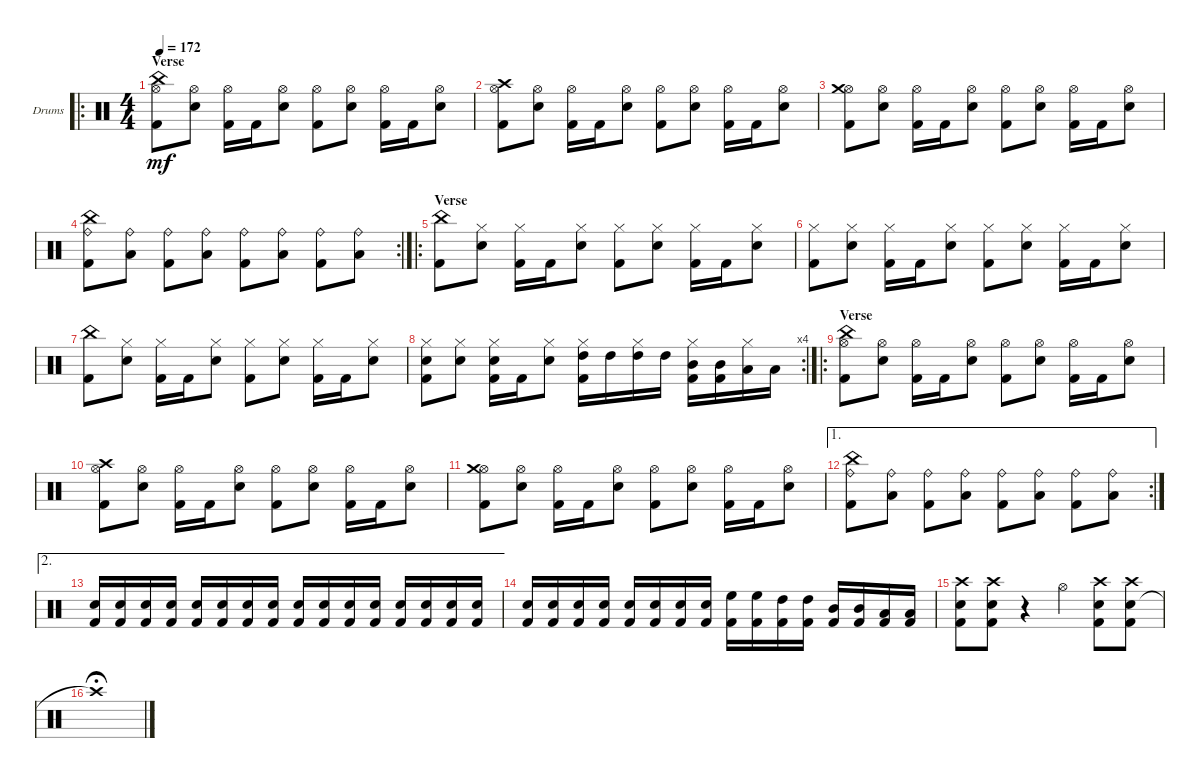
\bracketExtendMode groupsimilarinstruments
\firstSystemTrackNameOrientation horizontal
\otherSystemsTrackNameOrientation horizontal
\track ("Drumkit" "Drums") {instrument percussion}
\staff {score}
\articulation defaults
\ro
\ts (4 4)
\section ("" "Verse")
\tempo 172
\clef neutral
\ks c
("Kick (hit) 2" "Hi-Hat (open)" "China (hit)").8{dy mf} ("Snare (hit) 2" "Hi-Hat (open)").8 ("Kick (hit) 2" "Hi-Hat (open)").16 "Kick (hit) 2".16 ("Snare (hit) 2" "Hi-Hat (open)").8 ("Kick (hit) 2" "Hi-Hat (open)").8 ("Snare (hit) 2" "Hi-Hat (open)").8 ("Kick (hit) 2" "Hi-Hat (open)").16 "Kick (hit) 2".16 ("Snare (hit) 2" "Hi-Hat (open)").8 |
("Kick (hit) 2" "Hi-Hat (open)" "Crash high (hit)").8 ("Snare (hit) 2" "Hi-Hat (open)").8 ("Kick (hit) 2" "Hi-Hat (open)").16 "Kick (hit) 2".16 ("Snare (hit) 2" "Hi-Hat (open)").8 ("Kick (hit) 2" "Hi-Hat (open)").8 ("Snare (hit) 2" "Hi-Hat (open)").8 ("Kick (hit) 2" "Hi-Hat (open)").16 "Kick (hit) 2".16 ("Snare (hit) 2" "Hi-Hat (open)").8 |
("Kick (hit) 2" "Hi-Hat (open)" "Crash medium (hit)").8 ("Snare (hit) 2" "Hi-Hat (open)").8 ("Kick (hit) 2" "Hi-Hat (open)").16 "Kick (hit) 2".16 ("Snare (hit) 2" "Hi-Hat (open)").8 ("Kick (hit) 2" "Hi-Hat (open)").8 ("Snare (hit) 2" "Hi-Hat (open)").8 ("Kick (hit) 2" "Hi-Hat (open)").16 "Kick (hit) 2".16 ("Snare (hit) 2" "Hi-Hat (open)").8 |
\rc 2
("Kick (hit) 2" "China (hit)" "Ride (bell)").8 ("Ride (bell)" "Low Tom (hit)").8 ("Kick (hit) 2" "Ride (bell)").8 ("Ride (bell)" "Low Tom (hit)").8 ("Kick (hit) 2" "Ride (bell)").8 ("Ride (bell)" "Low Tom (hit)").8 ("Kick (hit) 2" "Ride (bell)").8 ("Ride (bell)" "Low Tom (hit)").8 |
\ro
\section ("" "Verse")
("Kick (hit) 2" "China (hit)").8 ("Snare (hit) 2" "Hi-Hat (closed)").8 ("Kick (hit) 2" "Hi-Hat (closed)").16 "Kick (hit) 2".16 ("Snare (hit) 2" "Hi-Hat (closed)").8 ("Kick (hit) 2" "Hi-Hat (closed)").8 ("Snare (hit) 2" "Hi-Hat (closed)").8 ("Kick (hit) 2" "Hi-Hat (closed)").16 "Kick (hit) 2".16 ("Snare (hit) 2" "Hi-Hat (closed)").8 |
("Kick (hit) 2" "Hi-Hat (closed)").8 ("Snare (hit) 2" "Hi-Hat (closed)").8 ("Kick (hit) 2" "Hi-Hat (closed)").16 "Kick (hit) 2".16 ("Snare (hit) 2" "Hi-Hat (closed)").8 ("Kick (hit) 2" "Hi-Hat (closed)").8 ("Snare (hit) 2" "Hi-Hat (closed)").8 ("Kick (hit) 2" "Hi-Hat (closed)").16 "Kick (hit) 2".16 ("Snare (hit) 2" "Hi-Hat (closed)").8 |
("Kick (hit) 2" "China (hit)").8 ("Snare (hit) 2" "Hi-Hat (closed)").8 ("Kick (hit) 2" "Hi-Hat (closed)").16 "Kick (hit) 2".16 ("Snare (hit) 2" "Hi-Hat (closed)").8 ("Kick (hit) 2" "Hi-Hat (closed)").8 ("Snare (hit) 2" "Hi-Hat (closed)").8 ("Kick (hit) 2" "Hi-Hat (closed)").16 "Kick (hit) 2".16 ("Snare (hit) 2" "Hi-Hat (closed)").8 |
\rc 4
("Kick (hit) 2" "Hi-Hat (closed)" "Snare (hit) 2").8 ("Snare (hit) 2" "Hi-Hat (closed)").8 ("Kick (hit) 2" "Hi-Hat (closed)" "Snare (hit) 2").16 "Kick (hit) 2".16 ("Snare (hit) 2" "Hi-Hat (closed)").8 ("Kick (hit) 2" "Hi-Hat (closed)" "High Tom (hit)").16 "High Tom (hit)".16 ("Hi-Hat (closed)" "High Tom (hit)").16 "High Tom (hit)".16 ("Kick (hit) 2" "Hi-Hat (closed)" "Mid Tom (hit)").16 ("Kick (hit) 2" "Mid Tom (hit)").16 ("Hi-Hat (closed)" "Low Tom (hit)").16 "Low Tom (hit)".16 |
\ro
\section ("" "Verse")
("Kick (hit) 2" "Hi-Hat (open)" "China (hit)").8 ("Snare (hit) 2" "Hi-Hat (open)").8 ("Kick (hit) 2" "Hi-Hat (open)").16 "Kick (hit) 2".16 ("Snare (hit) 2" "Hi-Hat (open)").8 ("Kick (hit) 2" "Hi-Hat (open)").8 ("Snare (hit) 2" "Hi-Hat (open)").8 ("Kick (hit) 2" "Hi-Hat (open)").16 "Kick (hit) 2".16 ("Snare (hit) 2" "Hi-Hat (open)").8 |
("Kick (hit) 2" "Hi-Hat (open)" "Crash high (hit)").8 ("Snare (hit) 2" "Hi-Hat (open)").8 ("Kick (hit) 2" "Hi-Hat (open)").16 "Kick (hit) 2".16 ("Snare (hit) 2" "Hi-Hat (open)").8 ("Kick (hit) 2" "Hi-Hat (open)").8 ("Snare (hit) 2" "Hi-Hat (open)").8 ("Kick (hit) 2" "Hi-Hat (open)").16 "Kick (hit) 2".16 ("Snare (hit) 2" "Hi-Hat (open)").8 |
("Kick (hit) 2" "Hi-Hat (open)" "Crash medium (hit)").8 ("Snare (hit) 2" "Hi-Hat (open)").8 ("Kick (hit) 2" "Hi-Hat (open)").16 "Kick (hit) 2".16 ("Snare (hit) 2" "Hi-Hat (open)").8 ("Kick (hit) 2" "Hi-Hat (open)").8 ("Snare (hit) 2" "Hi-Hat (open)").8 ("Kick (hit) 2" "Hi-Hat (open)").16 "Kick (hit) 2".16 ("Snare (hit) 2" "Hi-Hat (open)").8 |
\ae 1
\rc 2
("Kick (hit) 2" "China (hit)" "Ride (bell)").8 ("Ride (bell)" "Low Tom (hit)").8 ("Kick (hit) 2" "Ride (bell)").8 ("Ride (bell)" "Low Tom (hit)").8 ("Kick (hit) 2" "Ride (bell)").8 ("Ride (bell)" "Low Tom (hit)").8 ("Kick (hit) 2" "Ride (bell)").8 ("Ride (bell)" "Low Tom (hit)").8 |
\ae 2
("Kick (hit) 2" "Snare (hit) 2").16 ("Snare (hit) 2" "Kick (hit) 2").16 ("Kick (hit) 2" "Snare (hit) 2").16 ("Snare (hit) 2" "Kick (hit) 2").16 ("Kick (hit) 2" "Snare (hit) 2").16 ("Snare (hit) 2" "Kick (hit) 2").16 ("Kick (hit) 2" "Snare (hit) 2").16 ("Snare (hit) 2" "Kick (hit) 2").16 ("Kick (hit) 2" "Snare (hit) 2").16 ("Snare (hit) 2" "Kick (hit) 2").16 ("Kick (hit) 2" "Snare (hit) 2").16 ("Snare (hit) 2" "Kick (hit) 2").16 ("Kick (hit) 2" "Snare (hit) 2").16 ("Snare (hit) 2" "Kick (hit) 2").16 ("Kick (hit) 2" "Snare (hit) 2").16 ("Snare (hit) 2" "Kick (hit) 2").16 |
("Kick (hit) 2" "Snare (hit) 2").16 ("Snare (hit) 2" "Kick (hit) 2").16 ("Kick (hit) 2" "Snare (hit) 2").16 ("Snare (hit) 2" "Kick (hit) 2").16 ("Kick (hit) 2" "Snare (hit) 2").16 ("Snare (hit) 2" "Kick (hit) 2").16 ("Kick (hit) 2" "Snare (hit) 2").16 ("Snare (hit) 2" "Kick (hit) 2").16 ("Kick (hit) 2" "High Floor Tom (hit)").16 ("Kick (hit) 2" "High Floor Tom (hit)").16 ("Kick (hit) 2" "High Tom (hit)").16 ("Kick (hit) 2" "High Tom (hit)").16 ("Kick (hit) 2" "Mid Tom (hit)").16 ("Kick (hit) 2" "Mid Tom (hit)").16 ("Kick (hit) 2" "Low Tom (hit)").16 ("Kick (hit) 2" "Low Tom (hit)").16 |
("Snare (hit) 2" "Kick (hit) 2" "Crash high (hit)").8 ("Snare (hit) 2" "Kick (hit) 2" "Crash high (hit)").8 r.4 "Hi-Hat (open)".4 ("Kick (hit) 2" "Snare (hit) 2" "Crash high (hit)").8 ("Snare (hit) 2" "Kick (hit) 2" "Crash high (hit)").8 |
"Crash high (hit)"{t}.1{fermata (medium 1)}
